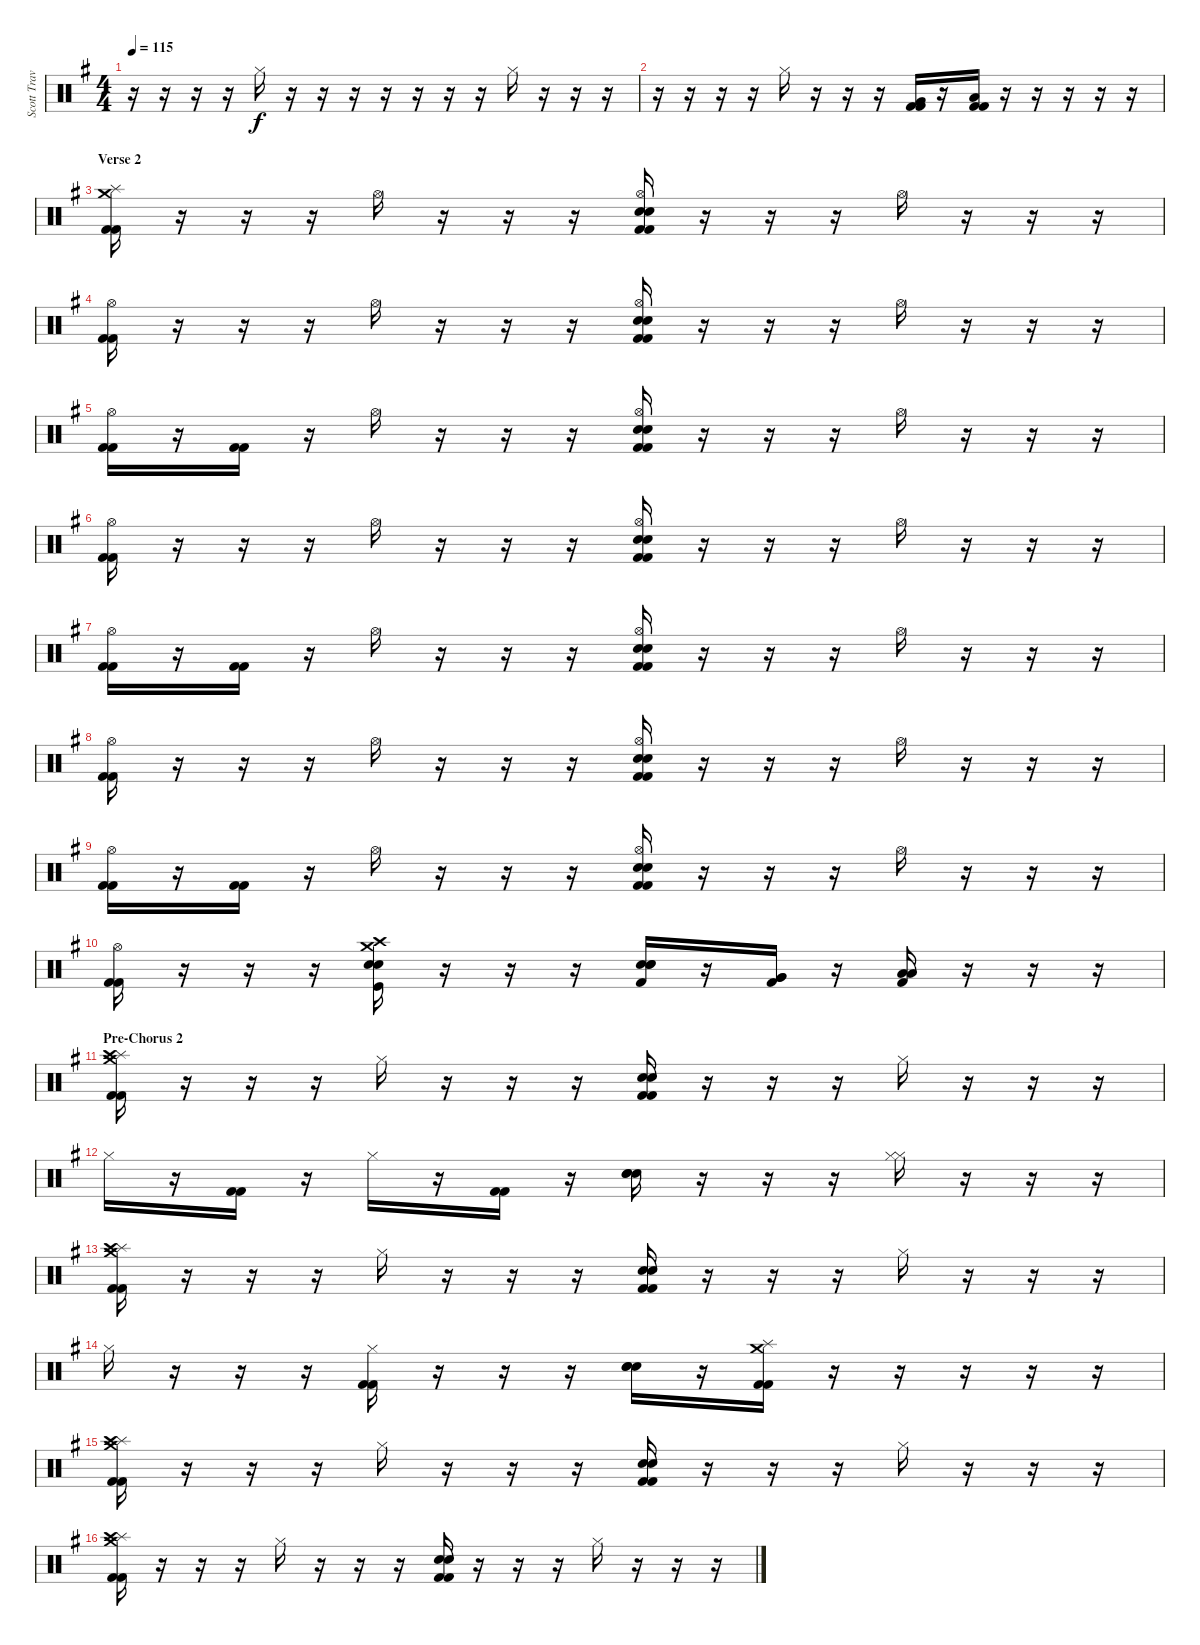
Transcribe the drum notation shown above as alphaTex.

\track ("Scott Travis" "Scott Trav") {instrument percussion}
\staff {score}
\articulation defaults
\ts (4 4)
\tempo 115
\clef neutral
\ks eminor
r.16{dy f} r.16 r.16 r.16 "Hi-Hat (closed)".16 r.16 r.16 r.16 r.16 r.16 r.16 r.16 "Hi-Hat (closed)".16 r.16 r.16 r.16 |
r.16 r.16 r.16 r.16 "Hi-Hat (closed)".16 r.16 r.16 r.16 ("Very Low Tom (hit)" "Kick (hit) 2" "Kick (hit) 2").16 r.16 ("Low Floor Tom (hit)" "Kick (hit) 2" "Kick (hit) 2").16 r.16 r.16 r.16 r.16 r.16 |
\section ("" "Verse 2")
("Crash medium (hit)" "Splash (hit)" "Kick (hit) 2" "Kick (hit) 2").16 r.16 r.16 r.16 "Hi-Hat (open)".16 r.16 r.16 r.16 ("Hi-Hat (open)" "Snare (hit) 2" "Snare (hit) 2" "Kick (hit) 2" "Kick (hit) 2").16 r.16 r.16 r.16 "Hi-Hat (open)".16 r.16 r.16 r.16 |
("Hi-Hat (open)" "Kick (hit) 2" "Kick (hit) 2").16 r.16 r.16 r.16 "Hi-Hat (open)".16 r.16 r.16 r.16 ("Hi-Hat (open)" "Snare (hit) 2" "Snare (hit) 2" "Kick (hit) 2" "Kick (hit) 2").16 r.16 r.16 r.16 "Hi-Hat (open)".16 r.16 r.16 r.16 |
("Hi-Hat (open)" "Kick (hit) 2" "Kick (hit) 2").16 r.16 ("Kick (hit) 2" "Kick (hit) 2").16 r.16 "Hi-Hat (open)".16 r.16 r.16 r.16 ("Hi-Hat (open)" "Snare (hit) 2" "Snare (hit) 2" "Kick (hit) 2" "Kick (hit) 2").16 r.16 r.16 r.16 "Hi-Hat (open)".16 r.16 r.16 r.16 |
("Hi-Hat (open)" "Kick (hit) 2" "Kick (hit) 2").16 r.16 r.16 r.16 "Hi-Hat (open)".16 r.16 r.16 r.16 ("Hi-Hat (open)" "Snare (hit) 2" "Snare (hit) 2" "Kick (hit) 2" "Kick (hit) 2").16 r.16 r.16 r.16 "Hi-Hat (open)".16 r.16 r.16 r.16 |
("Hi-Hat (open)" "Kick (hit) 2" "Kick (hit) 2").16 r.16 ("Kick (hit) 2" "Kick (hit) 2").16 r.16 "Hi-Hat (open)".16 r.16 r.16 r.16 ("Hi-Hat (open)" "Snare (hit) 2" "Snare (hit) 2" "Kick (hit) 2" "Kick (hit) 2").16 r.16 r.16 r.16 "Hi-Hat (open)".16 r.16 r.16 r.16 |
("Hi-Hat (open)" "Kick (hit) 2" "Kick (hit) 2").16 r.16 r.16 r.16 "Hi-Hat (open)".16 r.16 r.16 r.16 ("Hi-Hat (open)" "Snare (hit) 2" "Snare (hit) 2" "Kick (hit) 2" "Kick (hit) 2").16 r.16 r.16 r.16 "Hi-Hat (open)".16 r.16 r.16 r.16 |
("Hi-Hat (open)" "Kick (hit) 2" "Kick (hit) 2").16 r.16 ("Kick (hit) 2" "Kick (hit) 2").16 r.16 "Hi-Hat (open)".16 r.16 r.16 r.16 ("Hi-Hat (open)" "Snare (hit) 2" "Snare (hit) 2" "Kick (hit) 2" "Kick (hit) 2").16 r.16 r.16 r.16 "Hi-Hat (open)".16 r.16 r.16 r.16 |
("Hi-Hat (open)" "Kick (hit) 2" "Kick (hit) 2").16 r.16 r.16 r.16 ("Crash medium (hit)" "Crash high (hit)" "Snare (hit) 2" "Snare (hit) 2" "Kick (hit)").16 r.16 r.16 r.16 ("Snare (hit) 2" "Snare (hit) 2" "Snare (hit) 2" "Kick (hit) 2").16 r.16 ("Very Low Tom (hit)" "Very Low Tom (hit)" "Kick (hit) 2").16 r.16 ("Low Floor Tom (hit)" "Low Floor Tom (hit)" "Kick (hit) 2").16 r.16 r.16 r.16 |
\section ("" "Pre-Chorus 2")
("Splash (hit)" "Crash high (hit)" "Crash medium (hit)" "Kick (hit) 2" "Kick (hit) 2").16 r.16 r.16 r.16 "Hi-Hat (closed)".16 r.16 r.16 r.16 ("Snare (hit) 2" "Snare (hit) 2" "Kick (hit) 2" "Kick (hit) 2").16 r.16 r.16 r.16 "Hi-Hat (closed)".16 r.16 r.16 r.16 |
"Hi-Hat (closed)".16 r.16 ("Kick (hit) 2" "Kick (hit) 2").16 r.16 "Hi-Hat (closed)".16 r.16 ("Kick (hit) 2" "Kick (hit) 2").16 r.16 ("Snare (hit) 2" "Snare (hit) 2" "Snare (hit) 2").16 r.16 r.16 r.16 ("Hi-Hat (closed)" "Hi-Hat (closed)").16 r.16 r.16 r.16 |
("Splash (hit)" "Crash high (hit)" "Crash medium (hit)" "Kick (hit) 2" "Kick (hit) 2").16 r.16 r.16 r.16 "Hi-Hat (closed)".16 r.16 r.16 r.16 ("Snare (hit) 2" "Snare (hit) 2" "Kick (hit) 2" "Kick (hit) 2").16 r.16 r.16 r.16 "Hi-Hat (closed)".16 r.16 r.16 r.16 |
"Hi-Hat (closed)".16 r.16 r.16 r.16 ("Hi-Hat (closed)" "Kick (hit) 2" "Kick (hit) 2").16 r.16 r.16 r.16 ("Snare (hit) 2" "Snare (hit) 2" "Snare (hit) 2").16 r.16 ("Crash medium (hit)" "Splash (hit)" "Kick (hit) 2" "Kick (hit) 2").16 r.16 r.16 r.16 r.16 r.16 |
("Splash (hit)" "Crash high (hit)" "Crash medium (hit)" "Kick (hit) 2" "Kick (hit) 2").16 r.16 r.16 r.16 "Hi-Hat (closed)".16 r.16 r.16 r.16 ("Snare (hit) 2" "Snare (hit) 2" "Kick (hit) 2" "Kick (hit) 2").16 r.16 r.16 r.16 "Hi-Hat (closed)".16 r.16 r.16 r.16 |
("Splash (hit)" "Crash high (hit)" "Crash medium (hit)" "Kick (hit) 2" "Kick (hit) 2").16 r.16 r.16 r.16 "Hi-Hat (closed)".16 r.16 r.16 r.16 ("Snare (hit) 2" "Snare (hit) 2" "Kick (hit) 2" "Kick (hit) 2").16 r.16 r.16 r.16 "Hi-Hat (closed)".16 r.16 r.16 r.16
